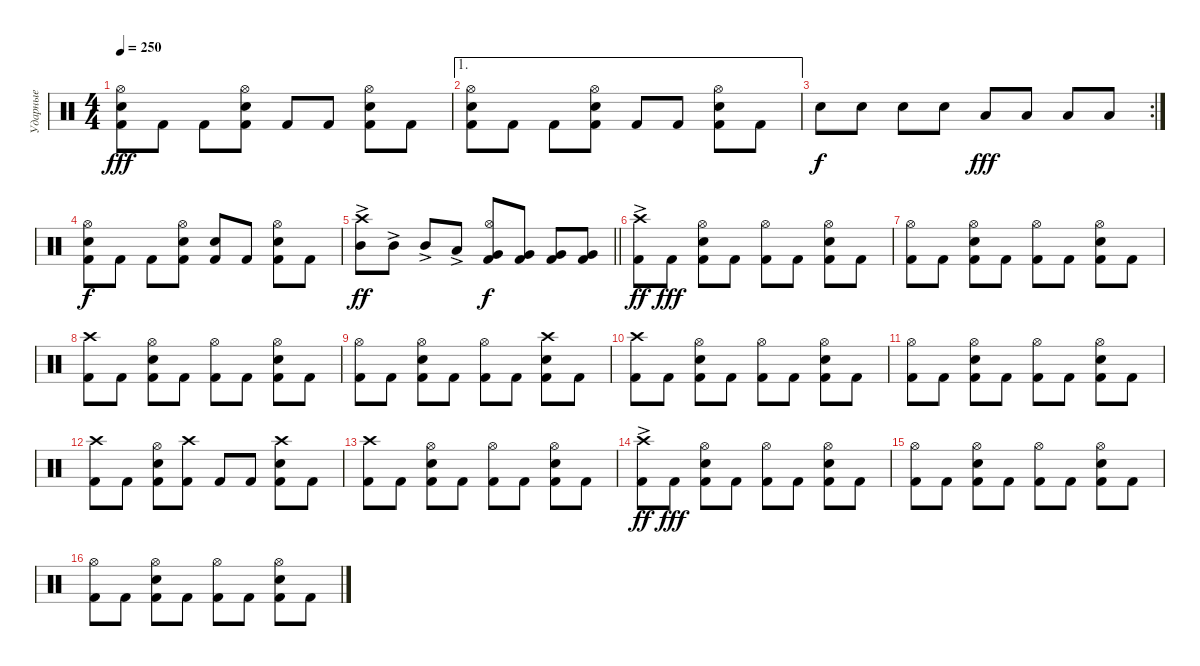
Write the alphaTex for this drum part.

\track ("Ударные" "Ударные") {instrument percussion}
\staff {score}
\articulation defaults
\ts (4 4)
\tempo 250
\clef neutral
\ks c
("Kick (hit) 2" "Snare (hit) 2" "Hi-Hat (open)").8{dy fff} "Kick (hit) 2".8 "Kick (hit) 2".8 ("Kick (hit) 2" "Snare (hit) 2" "Hi-Hat (open)").8 "Kick (hit) 2".8 "Kick (hit) 2".8 ("Kick (hit) 2" "Snare (hit) 2" "Hi-Hat (open)").8 "Kick (hit) 2".8 |
\ae 1
("Kick (hit) 2" "Snare (hit) 2" "Hi-Hat (open)").8 "Kick (hit) 2".8 "Kick (hit) 2".8 ("Kick (hit) 2" "Snare (hit) 2" "Hi-Hat (open)").8 "Kick (hit) 2".8 "Kick (hit) 2".8 ("Kick (hit) 2" "Snare (hit) 2" "Hi-Hat (open)").8 "Kick (hit) 2".8 |
\rc 2 "Snare (hit) 2".8{dy f} "Snare (hit) 2".8 "Snare (hit) 2".8 "Snare (hit) 2".8 "Low Tom (hit)".8{dy fff} "Low Tom (hit)".8 "Low Tom (hit)".8 "Low Tom (hit)".8
|
("Kick (hit) 2" "Snare (hit) 2" "Hi-Hat (open)").8{dy f} "Kick (hit) 2".8 "Kick (hit) 2".8 ("Kick (hit) 2" "Snare (hit) 2" "Hi-Hat (open)").8 ("Kick (hit) 2" "Snare (hit) 2").8 "Kick (hit) 2".8 ("Kick (hit) 2" "Snare (hit) 2" "Hi-Hat (open)").8 "Kick (hit) 2".8 |
\barLineRight lightlight
("Mid Tom (hit)"{ac} "Crash high (hit)").8{dy ff} "Mid Tom (hit)"{ac}.8 "Mid Tom (hit)"{ac}.8 "Low Tom (hit)"{ac}.8 ("Kick (hit) 2" "Very Low Tom (hit)" "Hi-Hat (open)").8{dy f} ("Kick (hit) 2" "Very Low Tom (hit)").8 ("Kick (hit) 2" "Very Low Tom (hit)").8 ("Kick (hit) 2" "Very Low Tom (hit)").8 |
("Kick (hit) 2" "Crash high (hit)"{ac}).8{dy ff} "Kick (hit) 2".8{dy fff} ("Kick (hit) 2" "Snare (hit) 2" "Hi-Hat (open)").8 "Kick (hit) 2".8 ("Kick (hit) 2" "Hi-Hat (open)").8 "Kick (hit) 2".8 ("Kick (hit) 2" "Snare (hit) 2" "Hi-Hat (open)").8 "Kick (hit) 2".8 |
("Kick (hit) 2" "Hi-Hat (open)").8 "Kick (hit) 2".8 ("Kick (hit) 2" "Snare (hit) 2" "Hi-Hat (open)").8 "Kick (hit) 2".8 ("Kick (hit) 2" "Hi-Hat (open)").8 "Kick (hit) 2".8 ("Kick (hit) 2" "Snare (hit) 2" "Hi-Hat (open)").8 "Kick (hit) 2".8 |
("Kick (hit) 2" "Crash high (hit)").8 "Kick (hit) 2".8 ("Kick (hit) 2" "Snare (hit) 2" "Hi-Hat (open)").8 "Kick (hit) 2".8 ("Kick (hit) 2" "Hi-Hat (open)").8 "Kick (hit) 2".8 ("Kick (hit) 2" "Snare (hit) 2" "Hi-Hat (open)").8 "Kick (hit) 2".8 |
("Kick (hit) 2" "Hi-Hat (open)").8 "Kick (hit) 2".8 ("Kick (hit) 2" "Snare (hit) 2" "Hi-Hat (open)").8 "Kick (hit) 2".8 ("Kick (hit) 2" "Hi-Hat (open)").8 "Kick (hit) 2".8 ("Kick (hit) 2" "Snare (hit) 2" "Crash high (hit)").8 "Kick (hit) 2".8 |
("Kick (hit) 2" "Crash high (hit)").8 "Kick (hit) 2".8 ("Kick (hit) 2" "Snare (hit) 2" "Hi-Hat (open)").8 "Kick (hit) 2".8 ("Kick (hit) 2" "Hi-Hat (open)").8 "Kick (hit) 2".8 ("Kick (hit) 2" "Snare (hit) 2" "Hi-Hat (open)").8 "Kick (hit) 2".8 |
("Kick (hit) 2" "Hi-Hat (open)").8 "Kick (hit) 2".8 ("Kick (hit) 2" "Snare (hit) 2" "Hi-Hat (open)").8 "Kick (hit) 2".8 ("Kick (hit) 2" "Hi-Hat (open)").8 "Kick (hit) 2".8 ("Kick (hit) 2" "Snare (hit) 2" "Hi-Hat (open)").8 "Kick (hit) 2".8 |
("Kick (hit) 2" "Crash high (hit)").8 "Kick (hit) 2".8 ("Kick (hit) 2" "Snare (hit) 2" "Hi-Hat (open)").8 ("Kick (hit) 2" "Crash high (hit)").8 "Kick (hit) 2".8 "Kick (hit) 2".8 ("Kick (hit) 2" "Snare (hit) 2" "Crash high (hit)").8 "Kick (hit) 2".8 |
("Kick (hit) 2" "Crash high (hit)").8 "Kick (hit) 2".8 ("Kick (hit) 2" "Snare (hit) 2" "Hi-Hat (open)").8 "Kick (hit) 2".8 ("Kick (hit) 2" "Hi-Hat (open)").8 "Kick (hit) 2".8 ("Kick (hit) 2" "Snare (hit) 2" "Hi-Hat (open)").8 "Kick (hit) 2".8 |
("Kick (hit) 2" "Crash high (hit)"{ac}).8{dy ff} "Kick (hit) 2".8{dy fff} ("Kick (hit) 2" "Snare (hit) 2" "Hi-Hat (open)").8 "Kick (hit) 2".8 ("Kick (hit) 2" "Hi-Hat (open)").8 "Kick (hit) 2".8 ("Kick (hit) 2" "Snare (hit) 2" "Hi-Hat (open)").8 "Kick (hit) 2".8 |
("Kick (hit) 2" "Hi-Hat (open)").8 "Kick (hit) 2".8 ("Kick (hit) 2" "Snare (hit) 2" "Hi-Hat (open)").8 "Kick (hit) 2".8 ("Kick (hit) 2" "Hi-Hat (open)").8 "Kick (hit) 2".8 ("Kick (hit) 2" "Snare (hit) 2" "Hi-Hat (open)").8 "Kick (hit) 2".8 |
("Kick (hit) 2" "Hi-Hat (open)").8 "Kick (hit) 2".8 ("Kick (hit) 2" "Snare (hit) 2" "Hi-Hat (open)").8 "Kick (hit) 2".8 ("Kick (hit) 2" "Hi-Hat (open)").8 "Kick (hit) 2".8 ("Kick (hit) 2" "Snare (hit) 2" "Hi-Hat (open)").8 "Kick (hit) 2".8
